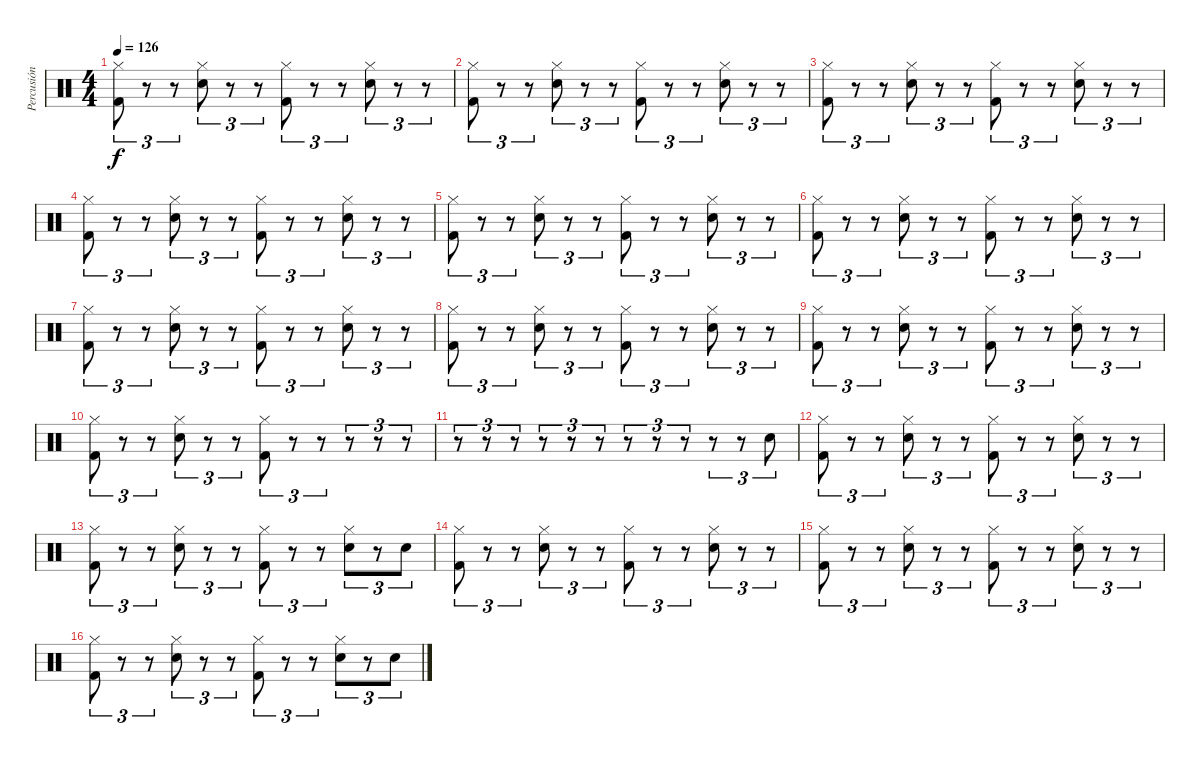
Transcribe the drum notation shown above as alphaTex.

\track ("Percusión" "Percusión") {instrument percussion}
\staff {score}
\articulation defaults
\ts (4 4)
\tempo 126
\clef neutral
\ks c
("Hi-Hat (closed)" "Kick (hit) 2").8{tu (3 2) dy f} r.8{tu (3 2)} r.8{tu (3 2)} ("Hi-Hat (closed)" "Electric Snare (hit)").8{tu (3 2)} r.8{tu (3 2)} r.8{tu (3 2)} ("Hi-Hat (closed)" "Kick (hit) 2").8{tu (3 2)} r.8{tu (3 2)} r.8{tu (3 2)} ("Hi-Hat (closed)" "Electric Snare (hit)").8{tu (3 2)} r.8{tu (3 2)} r.8{tu (3 2)} |
("Hi-Hat (closed)" "Kick (hit) 2").8{tu (3 2)} r.8{tu (3 2)} r.8{tu (3 2)} ("Hi-Hat (closed)" "Electric Snare (hit)").8{tu (3 2)} r.8{tu (3 2)} r.8{tu (3 2)} ("Hi-Hat (closed)" "Kick (hit) 2").8{tu (3 2)} r.8{tu (3 2)} r.8{tu (3 2)} ("Hi-Hat (closed)" "Electric Snare (hit)").8{tu (3 2)} r.8{tu (3 2)} r.8{tu (3 2)} |
("Hi-Hat (closed)" "Kick (hit) 2").8{tu (3 2)} r.8{tu (3 2)} r.8{tu (3 2)} ("Hi-Hat (closed)" "Electric Snare (hit)").8{tu (3 2)} r.8{tu (3 2)} r.8{tu (3 2)} ("Hi-Hat (closed)" "Kick (hit) 2").8{tu (3 2)} r.8{tu (3 2)} r.8{tu (3 2)} ("Hi-Hat (closed)" "Electric Snare (hit)").8{tu (3 2)} r.8{tu (3 2)} r.8{tu (3 2)} |
("Hi-Hat (closed)" "Kick (hit) 2").8{tu (3 2)} r.8{tu (3 2)} r.8{tu (3 2)} ("Hi-Hat (closed)" "Electric Snare (hit)").8{tu (3 2)} r.8{tu (3 2)} r.8{tu (3 2)} ("Hi-Hat (closed)" "Kick (hit) 2").8{tu (3 2)} r.8{tu (3 2)} r.8{tu (3 2)} ("Hi-Hat (closed)" "Electric Snare (hit)").8{tu (3 2)} r.8{tu (3 2)} r.8{tu (3 2)} |
("Hi-Hat (closed)" "Kick (hit) 2").8{tu (3 2)} r.8{tu (3 2)} r.8{tu (3 2)} ("Hi-Hat (closed)" "Electric Snare (hit)").8{tu (3 2)} r.8{tu (3 2)} r.8{tu (3 2)} ("Hi-Hat (closed)" "Kick (hit) 2").8{tu (3 2)} r.8{tu (3 2)} r.8{tu (3 2)} ("Hi-Hat (closed)" "Electric Snare (hit)").8{tu (3 2)} r.8{tu (3 2)} r.8{tu (3 2)} |
("Hi-Hat (closed)" "Kick (hit) 2").8{tu (3 2)} r.8{tu (3 2)} r.8{tu (3 2)} ("Hi-Hat (closed)" "Electric Snare (hit)").8{tu (3 2)} r.8{tu (3 2)} r.8{tu (3 2)} ("Hi-Hat (closed)" "Kick (hit) 2").8{tu (3 2)} r.8{tu (3 2)} r.8{tu (3 2)} ("Hi-Hat (closed)" "Electric Snare (hit)").8{tu (3 2)} r.8{tu (3 2)} r.8{tu (3 2)} |
("Hi-Hat (closed)" "Kick (hit) 2").8{tu (3 2)} r.8{tu (3 2)} r.8{tu (3 2)} ("Hi-Hat (closed)" "Electric Snare (hit)").8{tu (3 2)} r.8{tu (3 2)} r.8{tu (3 2)} ("Hi-Hat (closed)" "Kick (hit) 2").8{tu (3 2)} r.8{tu (3 2)} r.8{tu (3 2)} ("Hi-Hat (closed)" "Electric Snare (hit)").8{tu (3 2)} r.8{tu (3 2)} r.8{tu (3 2)} |
("Hi-Hat (closed)" "Kick (hit) 2").8{tu (3 2)} r.8{tu (3 2)} r.8{tu (3 2)} ("Hi-Hat (closed)" "Electric Snare (hit)").8{tu (3 2)} r.8{tu (3 2)} r.8{tu (3 2)} ("Hi-Hat (closed)" "Kick (hit) 2").8{tu (3 2)} r.8{tu (3 2)} r.8{tu (3 2)} ("Hi-Hat (closed)" "Electric Snare (hit)").8{tu (3 2)} r.8{tu (3 2)} r.8{tu (3 2)} |
("Hi-Hat (closed)" "Kick (hit) 2").8{tu (3 2)} r.8{tu (3 2)} r.8{tu (3 2)} ("Hi-Hat (closed)" "Electric Snare (hit)").8{tu (3 2)} r.8{tu (3 2)} r.8{tu (3 2)} ("Hi-Hat (closed)" "Kick (hit) 2").8{tu (3 2)} r.8{tu (3 2)} r.8{tu (3 2)} ("Hi-Hat (closed)" "Electric Snare (hit)").8{tu (3 2)} r.8{tu (3 2)} r.8{tu (3 2)} |
("Hi-Hat (closed)" "Kick (hit) 2").8{tu (3 2)} r.8{tu (3 2)} r.8{tu (3 2)} ("Hi-Hat (closed)" "Electric Snare (hit)").8{tu (3 2)} r.8{tu (3 2)} r.8{tu (3 2)} ("Hi-Hat (closed)" "Kick (hit) 2").8{tu (3 2)} r.8{tu (3 2)} r.8{tu (3 2)} r.8{tu (3 2)} r.8{tu (3 2)} r.8{tu (3 2)} |
r.8{tu (3 2)} r.8{tu (3 2)} r.8{tu (3 2)} r.8{tu (3 2)} r.8{tu (3 2)} r.8{tu (3 2)} r.8{tu (3 2)} r.8{tu (3 2)} r.8{tu (3 2)} r.8{tu (3 2)} r.8{tu (3 2)} "Electric Snare (hit)".8{tu (3 2)} |
("Hi-Hat (closed)" "Kick (hit) 2").8{tu (3 2)} r.8{tu (3 2)} r.8{tu (3 2)} ("Hi-Hat (closed)" "Electric Snare (hit)").8{tu (3 2)} r.8{tu (3 2)} r.8{tu (3 2)} ("Hi-Hat (closed)" "Kick (hit) 2").8{tu (3 2)} r.8{tu (3 2)} r.8{tu (3 2)} ("Hi-Hat (closed)" "Electric Snare (hit)").8{tu (3 2)} r.8{tu (3 2)} r.8{tu (3 2)} |
("Hi-Hat (closed)" "Kick (hit) 2").8{tu (3 2)} r.8{tu (3 2)} r.8{tu (3 2)} ("Hi-Hat (closed)" "Electric Snare (hit)").8{tu (3 2)} r.8{tu (3 2)} r.8{tu (3 2)} ("Hi-Hat (closed)" "Kick (hit) 2").8{tu (3 2)} r.8{tu (3 2)} r.8{tu (3 2)} ("Hi-Hat (closed)" "Electric Snare (hit)").8{tu (3 2)} r.8{tu (3 2)} "Electric Snare (hit)".8{tu (3 2)} |
("Hi-Hat (closed)" "Kick (hit) 2").8{tu (3 2)} r.8{tu (3 2)} r.8{tu (3 2)} ("Hi-Hat (closed)" "Electric Snare (hit)").8{tu (3 2)} r.8{tu (3 2)} r.8{tu (3 2)} ("Hi-Hat (closed)" "Kick (hit) 2").8{tu (3 2)} r.8{tu (3 2)} r.8{tu (3 2)} ("Hi-Hat (closed)" "Electric Snare (hit)").8{tu (3 2)} r.8{tu (3 2)} r.8{tu (3 2)} |
("Hi-Hat (closed)" "Kick (hit) 2").8{tu (3 2)} r.8{tu (3 2)} r.8{tu (3 2)} ("Hi-Hat (closed)" "Electric Snare (hit)").8{tu (3 2)} r.8{tu (3 2)} r.8{tu (3 2)} ("Hi-Hat (closed)" "Kick (hit) 2").8{tu (3 2)} r.8{tu (3 2)} r.8{tu (3 2)} ("Hi-Hat (closed)" "Electric Snare (hit)").8{tu (3 2)} r.8{tu (3 2)} r.8{tu (3 2)} |
("Hi-Hat (closed)" "Kick (hit) 2").8{tu (3 2)} r.8{tu (3 2)} r.8{tu (3 2)} ("Hi-Hat (closed)" "Electric Snare (hit)").8{tu (3 2)} r.8{tu (3 2)} r.8{tu (3 2)} ("Hi-Hat (closed)" "Kick (hit) 2").8{tu (3 2)} r.8{tu (3 2)} r.8{tu (3 2)} ("Hi-Hat (closed)" "Electric Snare (hit)").8{tu (3 2)} r.8{tu (3 2)} "Electric Snare (hit)".8{tu (3 2)}
